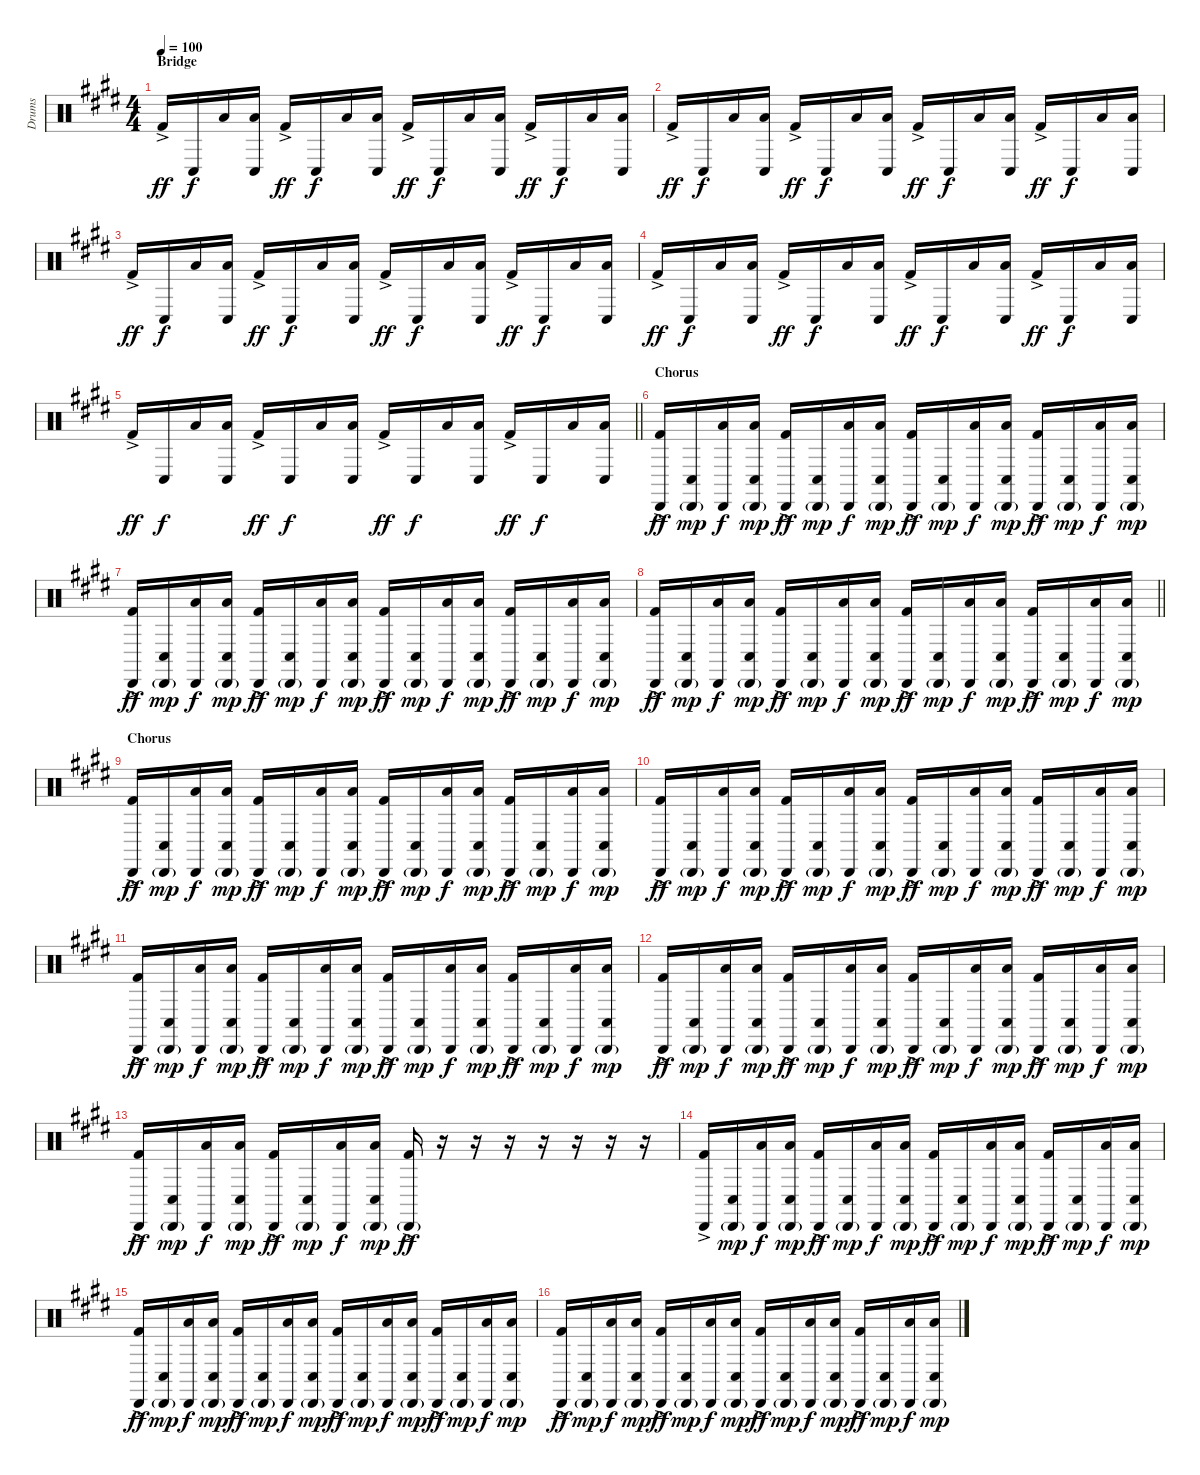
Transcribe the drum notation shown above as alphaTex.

\track ("Drums" "Drums") {instrument percussion}
\staff {score}
\articulation defaults
\ts (4 4)
\section ("" "Bridge")
\tempo 100
\clef neutral
\ks e "Kick (hit) 2"{ac}.16{dy ff} "Conga low (hit)".16{dy f} "Low Tom (hit)".16
("Low Tom (hit)" "Conga low (hit)").16 "Kick (hit) 2"{ac}.16{dy ff} "Conga low (hit)".16{dy f} "Low Tom (hit)".16 ("Low Tom (hit)" "Conga low (hit)").16 "Kick (hit) 2"{ac}.16{dy ff} "Conga low (hit)".16{dy f} "Low Tom (hit)".16 ("Low Tom (hit)" "Conga low (hit)").16 "Kick (hit) 2"{ac}.16{dy ff} "Conga low (hit)".16{dy f} "Low Tom (hit)".16 ("Low Tom (hit)" "Conga low (hit)").16 |
"Kick (hit) 2"{ac}.16{dy ff} "Conga low (hit)".16{dy f} "Low Tom (hit)".16 ("Low Tom (hit)" "Conga low (hit)").16 "Kick (hit) 2"{ac}.16{dy ff} "Conga low (hit)".16{dy f} "Low Tom (hit)".16 ("Low Tom (hit)" "Conga low (hit)").16 "Kick (hit) 2"{ac}.16{dy ff} "Conga low (hit)".16{dy f} "Low Tom (hit)".16 ("Low Tom (hit)" "Conga low (hit)").16 "Kick (hit) 2"{ac}.16{dy ff} "Conga low (hit)".16{dy f} "Low Tom (hit)".16 ("Low Tom (hit)" "Conga low (hit)").16 |
"Kick (hit) 2"{ac}.16{dy ff} "Conga low (hit)".16{dy f} "Low Tom (hit)".16 ("Low Tom (hit)" "Conga low (hit)").16 "Kick (hit) 2"{ac}.16{dy ff} "Conga low (hit)".16{dy f} "Low Tom (hit)".16 ("Low Tom (hit)" "Conga low (hit)").16 "Kick (hit) 2"{ac}.16{dy ff} "Conga low (hit)".16{dy f} "Low Tom (hit)".16 ("Low Tom (hit)" "Conga low (hit)").16 "Kick (hit) 2"{ac}.16{dy ff} "Conga low (hit)".16{dy f} "Low Tom (hit)".16 ("Low Tom (hit)" "Conga low (hit)").16 |
"Kick (hit) 2"{ac}.16{dy ff} "Conga low (hit)".16{dy f} "Low Tom (hit)".16 ("Low Tom (hit)" "Conga low (hit)").16 "Kick (hit) 2"{ac}.16{dy ff} "Conga low (hit)".16{dy f} "Low Tom (hit)".16 ("Low Tom (hit)" "Conga low (hit)").16 "Kick (hit) 2"{ac}.16{dy ff} "Conga low (hit)".16{dy f} "Low Tom (hit)".16 ("Low Tom (hit)" "Conga low (hit)").16 "Kick (hit) 2"{ac}.16{dy ff} "Conga low (hit)".16{dy f} "Low Tom (hit)".16 ("Low Tom (hit)" "Conga low (hit)").16 |
\barLineRight lightlight "Kick (hit) 2"{ac}.16{dy ff} "Conga low (hit)".16{dy f} "Low Tom (hit)".16
("Low Tom (hit)" "Conga low (hit)").16 "Kick (hit) 2"{ac}.16{dy ff} "Conga low (hit)".16{dy f} "Low Tom (hit)".16 ("Low Tom (hit)" "Conga low (hit)").16 "Kick (hit) 2"{ac}.16{dy ff} "Conga low (hit)".16{dy f} "Low Tom (hit)".16 ("Low Tom (hit)" "Conga low (hit)").16 "Kick (hit) 2"{ac}.16{dy ff} "Conga low (hit)".16{dy f} "Low Tom (hit)".16 ("Low Tom (hit)" "Conga low (hit)").16 |
\section ("" "Chorus")
("Cabasa (hit)" "Kick (hit) 2"{ac}).16{dy ff} ("Cabasa (hit)"{g} "Conga low (hit)").16{dy mp} ("Cabasa (hit)" "Low Tom (hit)").16{dy f} ("Cabasa (hit)"{g} "Low Tom (hit)" "Conga low (hit)").16{dy mp} ("Cabasa (hit)" "Kick (hit) 2"{ac}).16{dy ff} ("Cabasa (hit)"{g} "Conga low (hit)").16{dy mp} ("Cabasa (hit)" "Low Tom (hit)").16{dy f} ("Cabasa (hit)"{g} "Low Tom (hit)" "Conga low (hit)").16{dy mp} ("Cabasa (hit)" "Kick (hit) 2"{ac}).16{dy ff} ("Cabasa (hit)"{g} "Conga low (hit)").16{dy mp} ("Cabasa (hit)" "Low Tom (hit)").16{dy f} ("Cabasa (hit)"{g} "Low Tom (hit)" "Conga low (hit)").16{dy mp} ("Cabasa (hit)" "Kick (hit) 2"{ac}).16{dy ff} ("Cabasa (hit)"{g} "Conga low (hit)").16{dy mp} ("Cabasa (hit)" "Low Tom (hit)").16{dy f} ("Cabasa (hit)"{g} "Low Tom (hit)" "Conga low (hit)").16{dy mp} |
("Cabasa (hit)" "Kick (hit) 2"{ac}).16{dy ff} ("Cabasa (hit)"{g} "Conga low (hit)").16{dy mp} ("Cabasa (hit)" "Low Tom (hit)").16{dy f} ("Cabasa (hit)"{g} "Low Tom (hit)" "Conga low (hit)").16{dy mp} ("Cabasa (hit)" "Kick (hit) 2"{ac}).16{dy ff} ("Cabasa (hit)"{g} "Conga low (hit)").16{dy mp} ("Cabasa (hit)" "Low Tom (hit)").16{dy f} ("Cabasa (hit)"{g} "Low Tom (hit)" "Conga low (hit)").16{dy mp} ("Cabasa (hit)" "Kick (hit) 2"{ac}).16{dy ff} ("Cabasa (hit)"{g} "Conga low (hit)").16{dy mp} ("Cabasa (hit)" "Low Tom (hit)").16{dy f} ("Cabasa (hit)"{g} "Low Tom (hit)" "Conga low (hit)").16{dy mp} ("Cabasa (hit)" "Kick (hit) 2"{ac}).16{dy ff} ("Cabasa (hit)"{g} "Conga low (hit)").16{dy mp} ("Cabasa (hit)" "Low Tom (hit)").16{dy f} ("Cabasa (hit)"{g} "Low Tom (hit)" "Conga low (hit)").16{dy mp} |
\barLineRight lightlight
("Cabasa (hit)" "Kick (hit) 2"{ac}).16{dy ff} ("Cabasa (hit)"{g} "Conga low (hit)").16{dy mp} ("Cabasa (hit)" "Low Tom (hit)").16{dy f} ("Cabasa (hit)"{g} "Low Tom (hit)" "Conga low (hit)").16{dy mp} ("Cabasa (hit)" "Kick (hit) 2"{ac}).16{dy ff} ("Cabasa (hit)"{g} "Conga low (hit)").16{dy mp} ("Cabasa (hit)" "Low Tom (hit)").16{dy f} ("Cabasa (hit)"{g} "Low Tom (hit)" "Conga low (hit)").16{dy mp} ("Cabasa (hit)" "Kick (hit) 2"{ac}).16{dy ff} ("Cabasa (hit)"{g} "Conga low (hit)").16{dy mp} ("Cabasa (hit)" "Low Tom (hit)").16{dy f} ("Cabasa (hit)"{g} "Low Tom (hit)" "Conga low (hit)").16{dy mp} ("Cabasa (hit)" "Kick (hit) 2"{ac}).16{dy ff} ("Cabasa (hit)"{g} "Conga low (hit)").16{dy mp} ("Cabasa (hit)" "Low Tom (hit)").16{dy f} ("Cabasa (hit)"{g} "Low Tom (hit)" "Conga low (hit)").16{dy mp} |
\section ("" "Chorus")
("Cabasa (hit)" "Kick (hit) 2"{ac}).16{dy ff} ("Cabasa (hit)"{g} "Conga low (hit)").16{dy mp} ("Cabasa (hit)" "Low Tom (hit)").16{dy f} ("Cabasa (hit)"{g} "Low Tom (hit)" "Conga low (hit)").16{dy mp} ("Cabasa (hit)" "Kick (hit) 2"{ac}).16{dy ff} ("Cabasa (hit)"{g} "Conga low (hit)").16{dy mp} ("Cabasa (hit)" "Low Tom (hit)").16{dy f} ("Cabasa (hit)"{g} "Low Tom (hit)" "Conga low (hit)").16{dy mp} ("Cabasa (hit)" "Kick (hit) 2"{ac}).16{dy ff} ("Cabasa (hit)"{g} "Conga low (hit)").16{dy mp} ("Cabasa (hit)" "Low Tom (hit)").16{dy f} ("Cabasa (hit)"{g} "Low Tom (hit)" "Conga low (hit)").16{dy mp} ("Cabasa (hit)" "Kick (hit) 2"{ac}).16{dy ff} ("Cabasa (hit)"{g} "Conga low (hit)").16{dy mp} ("Cabasa (hit)" "Low Tom (hit)").16{dy f} ("Cabasa (hit)"{g} "Low Tom (hit)" "Conga low (hit)").16{dy mp} |
("Cabasa (hit)" "Kick (hit) 2"{ac}).16{dy ff} ("Cabasa (hit)"{g} "Conga low (hit)").16{dy mp} ("Cabasa (hit)" "Low Tom (hit)").16{dy f} ("Cabasa (hit)"{g} "Low Tom (hit)" "Conga low (hit)").16{dy mp} ("Cabasa (hit)" "Kick (hit) 2"{ac}).16{dy ff} ("Cabasa (hit)"{g} "Conga low (hit)").16{dy mp} ("Cabasa (hit)" "Low Tom (hit)").16{dy f} ("Cabasa (hit)"{g} "Low Tom (hit)" "Conga low (hit)").16{dy mp} ("Cabasa (hit)" "Kick (hit) 2"{ac}).16{dy ff} ("Cabasa (hit)"{g} "Conga low (hit)").16{dy mp} ("Cabasa (hit)" "Low Tom (hit)").16{dy f} ("Cabasa (hit)"{g} "Low Tom (hit)" "Conga low (hit)").16{dy mp} ("Cabasa (hit)" "Kick (hit) 2"{ac}).16{dy ff} ("Cabasa (hit)"{g} "Conga low (hit)").16{dy mp} ("Cabasa (hit)" "Low Tom (hit)").16{dy f} ("Cabasa (hit)"{g} "Low Tom (hit)" "Conga low (hit)").16{dy mp} |
("Cabasa (hit)" "Kick (hit) 2"{ac}).16{dy ff} ("Cabasa (hit)"{g} "Conga low (hit)").16{dy mp} ("Cabasa (hit)" "Low Tom (hit)").16{dy f} ("Cabasa (hit)"{g} "Low Tom (hit)" "Conga low (hit)").16{dy mp} ("Cabasa (hit)" "Kick (hit) 2"{ac}).16{dy ff} ("Cabasa (hit)"{g} "Conga low (hit)").16{dy mp} ("Cabasa (hit)" "Low Tom (hit)").16{dy f} ("Cabasa (hit)"{g} "Low Tom (hit)" "Conga low (hit)").16{dy mp} ("Cabasa (hit)" "Kick (hit) 2"{ac}).16{dy ff} ("Cabasa (hit)"{g} "Conga low (hit)").16{dy mp} ("Cabasa (hit)" "Low Tom (hit)").16{dy f} ("Cabasa (hit)"{g} "Low Tom (hit)" "Conga low (hit)").16{dy mp} ("Cabasa (hit)" "Kick (hit) 2"{ac}).16{dy ff} ("Cabasa (hit)"{g} "Conga low (hit)").16{dy mp} ("Cabasa (hit)" "Low Tom (hit)").16{dy f} ("Cabasa (hit)"{g} "Low Tom (hit)" "Conga low (hit)").16{dy mp} |
("Cabasa (hit)" "Kick (hit) 2"{ac}).16{dy ff} ("Cabasa (hit)"{g} "Conga low (hit)").16{dy mp} ("Cabasa (hit)" "Low Tom (hit)").16{dy f} ("Cabasa (hit)"{g} "Low Tom (hit)" "Conga low (hit)").16{dy mp} ("Cabasa (hit)" "Kick (hit) 2"{ac}).16{dy ff} ("Cabasa (hit)"{g} "Conga low (hit)").16{dy mp} ("Cabasa (hit)" "Low Tom (hit)").16{dy f} ("Cabasa (hit)"{g} "Low Tom (hit)" "Conga low (hit)").16{dy mp} ("Cabasa (hit)" "Kick (hit) 2"{ac}).16{dy ff} ("Cabasa (hit)"{g} "Conga low (hit)").16{dy mp} ("Cabasa (hit)" "Low Tom (hit)").16{dy f} ("Cabasa (hit)"{g} "Low Tom (hit)" "Conga low (hit)").16{dy mp} ("Cabasa (hit)" "Kick (hit) 2"{ac}).16{dy ff} ("Cabasa (hit)"{g} "Conga low (hit)").16{dy mp} ("Cabasa (hit)" "Low Tom (hit)").16{dy f} ("Cabasa (hit)"{g} "Low Tom (hit)" "Conga low (hit)").16{dy mp} |
("Cabasa (hit)" "Kick (hit) 2"{ac}).16{dy ff} ("Cabasa (hit)"{g} "Conga low (hit)").16{dy mp} ("Cabasa (hit)" "Low Tom (hit)").16{dy f} ("Cabasa (hit)"{g} "Low Tom (hit)" "Conga low (hit)").16{dy mp} ("Cabasa (hit)" "Kick (hit) 2"{ac}).16{dy ff} ("Cabasa (hit)"{g} "Conga low (hit)").16{dy mp} ("Cabasa (hit)" "Low Tom (hit)").16{dy f} ("Cabasa (hit)"{g} "Low Tom (hit)" "Conga low (hit)").16{dy mp} ("Cabasa (hit)"{g} "Kick (hit) 2"{ac}).16{dy ff} r.16 r.16 r.16 r.16 r.16 r.16 r.16 |
("Cabasa (hit)" "Kick (hit) 2"{ac}).16 ("Cabasa (hit)"{g} "Conga low (hit)").16{dy mp} ("Cabasa (hit)" "Low Tom (hit)").16{dy f} ("Cabasa (hit)"{g} "Low Tom (hit)" "Conga low (hit)").16{dy mp} ("Cabasa (hit)" "Kick (hit) 2"{ac}).16{dy ff} ("Cabasa (hit)"{g} "Conga low (hit)").16{dy mp} ("Cabasa (hit)" "Low Tom (hit)").16{dy f} ("Cabasa (hit)"{g} "Low Tom (hit)" "Conga low (hit)").16{dy mp} ("Cabasa (hit)" "Kick (hit) 2"{ac}).16{dy ff} ("Cabasa (hit)"{g} "Conga low (hit)").16{dy mp} ("Cabasa (hit)" "Low Tom (hit)").16{dy f} ("Cabasa (hit)"{g} "Low Tom (hit)" "Conga low (hit)").16{dy mp} ("Cabasa (hit)" "Kick (hit) 2"{ac}).16{dy ff} ("Cabasa (hit)"{g} "Conga low (hit)").16{dy mp} ("Cabasa (hit)" "Low Tom (hit)").16{dy f} ("Cabasa (hit)"{g} "Low Tom (hit)" "Conga low (hit)").16{dy mp} |
("Cabasa (hit)" "Kick (hit) 2"{ac}).16{dy ff} ("Cabasa (hit)"{g} "Conga low (hit)").16{dy mp} ("Cabasa (hit)" "Low Tom (hit)").16{dy f} ("Cabasa (hit)"{g} "Low Tom (hit)" "Conga low (hit)").16{dy mp} ("Cabasa (hit)" "Kick (hit) 2"{ac}).16{dy ff} ("Cabasa (hit)"{g} "Conga low (hit)").16{dy mp} ("Cabasa (hit)" "Low Tom (hit)").16{dy f} ("Cabasa (hit)"{g} "Low Tom (hit)" "Conga low (hit)").16{dy mp} ("Cabasa (hit)" "Kick (hit) 2"{ac}).16{dy ff} ("Cabasa (hit)"{g} "Conga low (hit)").16{dy mp} ("Cabasa (hit)" "Low Tom (hit)").16{dy f} ("Cabasa (hit)"{g} "Low Tom (hit)" "Conga low (hit)").16{dy mp} ("Cabasa (hit)" "Kick (hit) 2"{ac}).16{dy ff} ("Cabasa (hit)"{g} "Conga low (hit)").16{dy mp} ("Cabasa (hit)" "Low Tom (hit)").16{dy f} ("Cabasa (hit)"{g} "Low Tom (hit)" "Conga low (hit)").16{dy mp} |
("Cabasa (hit)" "Kick (hit) 2"{ac}).16{dy ff} ("Cabasa (hit)"{g} "Conga low (hit)").16{dy mp} ("Cabasa (hit)" "Low Tom (hit)").16{dy f} ("Cabasa (hit)"{g} "Low Tom (hit)" "Conga low (hit)").16{dy mp} ("Cabasa (hit)" "Kick (hit) 2"{ac}).16{dy ff} ("Cabasa (hit)"{g} "Conga low (hit)").16{dy mp} ("Cabasa (hit)" "Low Tom (hit)").16{dy f} ("Cabasa (hit)"{g} "Low Tom (hit)" "Conga low (hit)").16{dy mp} ("Cabasa (hit)" "Kick (hit) 2"{ac}).16{dy ff} ("Cabasa (hit)"{g} "Conga low (hit)").16{dy mp} ("Cabasa (hit)" "Low Tom (hit)").16{dy f} ("Cabasa (hit)"{g} "Low Tom (hit)" "Conga low (hit)").16{dy mp} ("Cabasa (hit)" "Kick (hit) 2"{ac}).16{dy ff} ("Cabasa (hit)"{g} "Conga low (hit)").16{dy mp} ("Cabasa (hit)" "Low Tom (hit)").16{dy f} ("Cabasa (hit)"{g} "Low Tom (hit)" "Conga low (hit)").16{dy mp}
